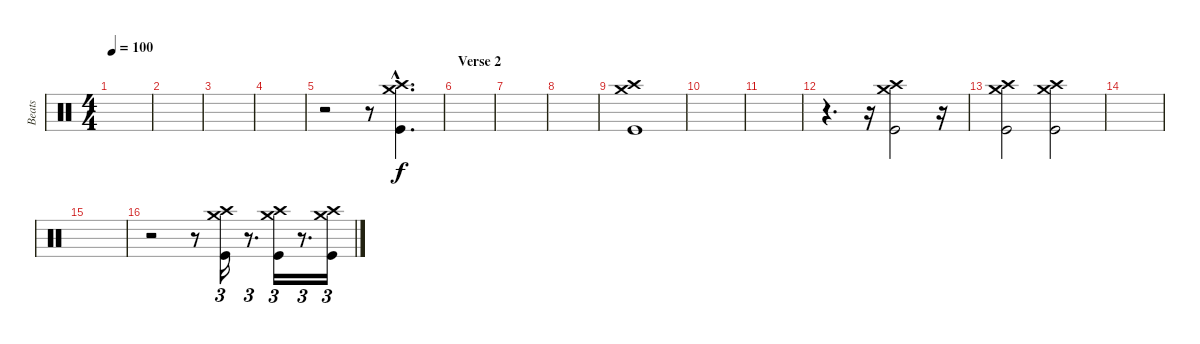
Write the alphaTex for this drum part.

\track ("Beats" "Beats") {instrument percussion}
\staff {score}
\articulation defaults
\ts (4 4)
\tempo 100
\clef neutral
\ks c
|
|
|
|
r.2 r.8 ("Crash high (hit)"{hac} "Crash medium (hit)"{hac} "Kick (hit)"{hac}).4{d} |
\section ("" "Verse 2")
|
|
|
("Crash high (hit)" "Crash medium (hit)" "Kick (hit)").1 |
|
|
r.4{d} r.16 ("Crash medium (hit)" "Crash high (hit)" "Kick (hit)").2 r.16 |
("Crash high (hit)" "Crash medium (hit)" "Kick (hit)").2 ("Crash high (hit)" "Crash medium (hit)" "Kick (hit)").2 |
|
|
r.2 r.8 ("Crash medium (hit)" "Crash high (hit)" "Kick (hit)").16{tu (3 2)} r.8{d tu (3 2)} ("Crash medium (hit)" "Crash high (hit)" "Kick (hit)").16{tu (3 2)} r.8{d tu (3 2)} ("Crash medium (hit)" "Crash high (hit)" "Kick (hit)").16{tu (3 2)}
